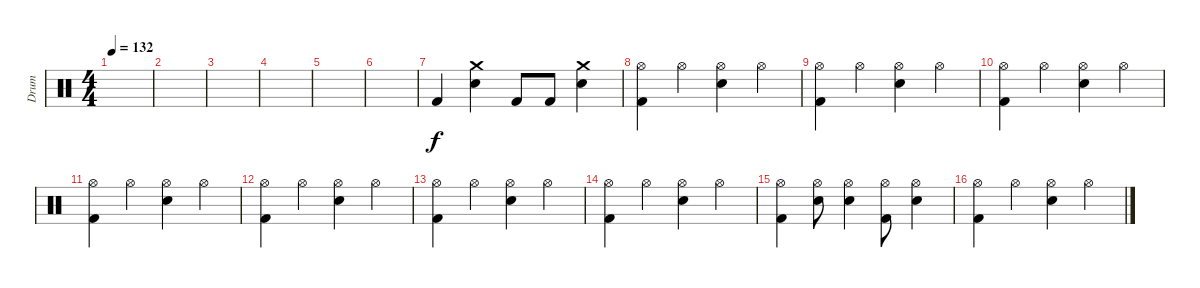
\track ("Drum" "Drum") {instrument percussion}
\staff {score}
\articulation defaults
\ts (4 4)
\tempo 132
\clef neutral
\ks c
|
|
|
|
|
|
"Kick (hit) 2".4 ("Crash medium (hit)" "Snare (hit) 2").4 "Kick (hit) 2".8 "Kick (hit) 2".8 ("Crash medium (hit)" "Snare (hit) 2").4 |
("Hi-Hat (open)" "Kick (hit) 2").4 "Hi-Hat (open)".4 ("Hi-Hat (open)" "Snare (hit) 2").4 "Hi-Hat (open)".4 |
("Hi-Hat (open)" "Kick (hit) 2").4 "Hi-Hat (open)".4 ("Hi-Hat (open)" "Snare (hit) 2").4 "Hi-Hat (open)".4 |
("Hi-Hat (open)" "Kick (hit) 2").4 "Hi-Hat (open)".4 ("Hi-Hat (open)" "Snare (hit) 2").4 "Hi-Hat (open)".4 |
("Hi-Hat (open)" "Kick (hit) 2").4 "Hi-Hat (open)".4 ("Hi-Hat (open)" "Snare (hit) 2").4 "Hi-Hat (open)".4 |
("Hi-Hat (open)" "Kick (hit) 2").4 "Hi-Hat (open)".4 ("Hi-Hat (open)" "Snare (hit) 2").4 "Hi-Hat (open)".4 |
("Hi-Hat (open)" "Kick (hit) 2").4 "Hi-Hat (open)".4 ("Hi-Hat (open)" "Snare (hit) 2").4 "Hi-Hat (open)".4 |
("Hi-Hat (open)" "Kick (hit) 2").4 "Hi-Hat (open)".4 ("Hi-Hat (open)" "Snare (hit) 2").4 "Hi-Hat (open)".4 |
("Hi-Hat (open)" "Kick (hit) 2").4 ("Hi-Hat (open)" "Snare (hit) 2").8 ("Hi-Hat (open)" "Snare (hit) 2").4 ("Hi-Hat (open)" "Kick (hit) 2").8 ("Hi-Hat (open)" "Snare (hit) 2").4 |
("Hi-Hat (open)" "Kick (hit) 2").4 "Hi-Hat (open)".4 ("Hi-Hat (open)" "Snare (hit) 2").4 "Hi-Hat (open)".4
